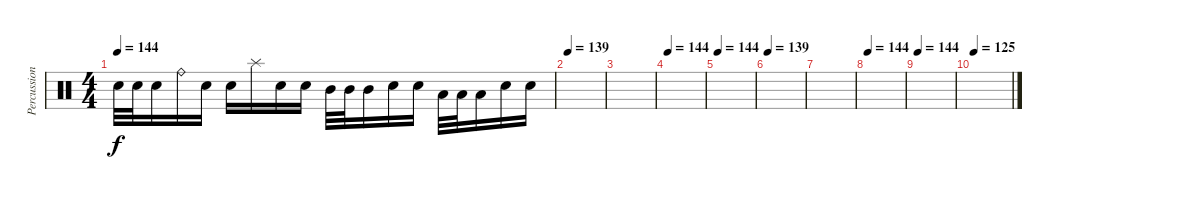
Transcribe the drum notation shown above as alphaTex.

\track ("Percussion" "Percussion") {instrument percussion}
\staff {score}
\articulation defaults
\ts (4 4)
\tempo 144
\clef neutral
\ks c "Electric Snare (hit)".32{dy f} "Electric Snare (hit)".32 "Electric Snare (hit)".16 "Ride (bell)".16 "Electric Snare (hit)".16 "Electric Snare (hit)".16 "Splash (hit)".16 "Electric Snare (hit)".16 "Electric Snare (hit)".16 "Mid Tom (hit)".32 "Mid Tom (hit)".32 "Mid Tom (hit)".16 "Electric Snare (hit)".16 "Electric Snare (hit)".16 "Low Tom (hit)".32 "Low Tom (hit)".32 "Low Tom (hit)".16 "Electric Snare (hit)".16 "Electric Snare (hit)".16
|
\tempo 139
|
|
\tempo 144
|
\tempo 144
|
\tempo 139
|
|
\tempo 144
|
\tempo 144
|
\tempo 125
